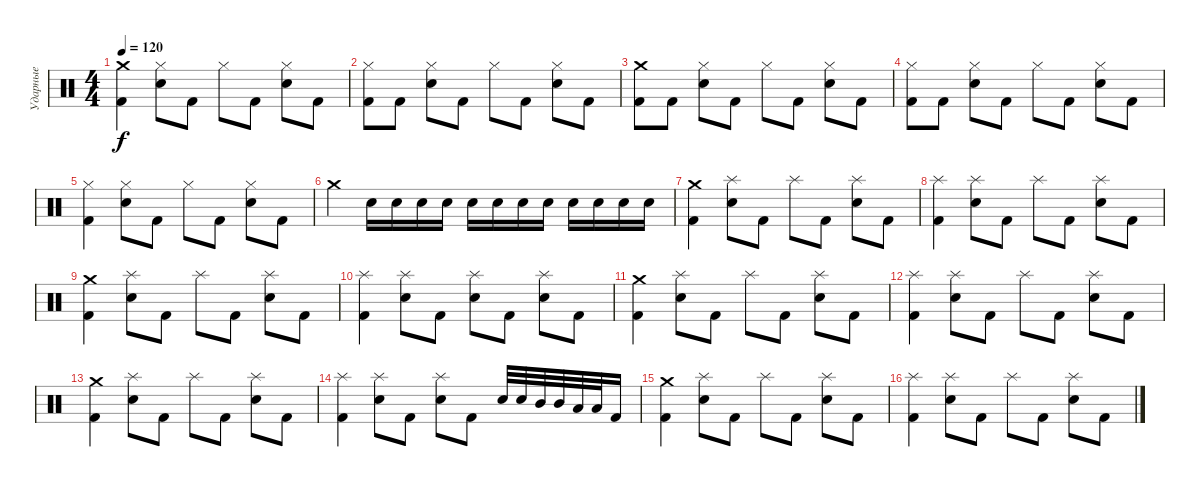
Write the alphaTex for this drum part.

\track ("Ударные" "Ударные") {instrument percussion}
\staff {score}
\articulation defaults
\ts (4 4)
\tempo 120
\clef neutral
\ks c
("Crash medium (hit)" "Kick (hit) 2").4{dy f} ("Hi-Hat (closed)" "Electric Snare (hit)").8 "Kick (hit) 2".8 "Hi-Hat (closed)".8 "Kick (hit) 2".8 ("Hi-Hat (closed)" "Electric Snare (hit)").8 "Kick (hit) 2".8 |
("Hi-Hat (closed)" "Kick (hit) 2").8 "Kick (hit) 2".8 ("Hi-Hat (closed)" "Electric Snare (hit)").8 "Kick (hit) 2".8 "Hi-Hat (closed)".8 "Kick (hit) 2".8 ("Hi-Hat (closed)" "Electric Snare (hit)").8 "Kick (hit) 2".8 |
("Crash medium (hit)" "Kick (hit) 2").8 "Kick (hit) 2".8 ("Hi-Hat (closed)" "Electric Snare (hit)").8 "Kick (hit) 2".8 "Hi-Hat (closed)".8 "Kick (hit) 2".8 ("Hi-Hat (closed)" "Electric Snare (hit)").8 "Kick (hit) 2".8 |
("Hi-Hat (closed)" "Kick (hit) 2").8 "Kick (hit) 2".8 ("Hi-Hat (closed)" "Electric Snare (hit)").8 "Kick (hit) 2".8 "Hi-Hat (closed)".8 "Kick (hit) 2".8 ("Hi-Hat (closed)" "Electric Snare (hit)").8 "Kick (hit) 2".8 |
("Hi-Hat (closed)" "Kick (hit) 2").4 ("Hi-Hat (closed)" "Electric Snare (hit)").8 "Kick (hit) 2".8 "Hi-Hat (closed)".8 "Kick (hit) 2".8 ("Hi-Hat (closed)" "Electric Snare (hit)").8 "Kick (hit) 2".8 |
"Crash medium (hit)".4 "Electric Snare (hit)".16 "Electric Snare (hit)".16 "Electric Snare (hit)".16 "Electric Snare (hit)".16 "Electric Snare (hit)".16 "Electric Snare (hit)".16 "Electric Snare (hit)".16 "Electric Snare (hit)".16 "Electric Snare (hit)".16 "Electric Snare (hit)".16 "Electric Snare (hit)".16 "Electric Snare (hit)".16 |
("Crash medium (hit)" "Kick (hit) 2").4 ("Splash (hit)" "Electric Snare (hit)").8 "Kick (hit) 2".8 "Splash (hit)".8 "Kick (hit) 2".8 ("Splash (hit)" "Electric Snare (hit)").8 "Kick (hit) 2".8 |
("Splash (hit)" "Kick (hit) 2").4 ("Splash (hit)" "Electric Snare (hit)").8 "Kick (hit) 2".8 "Splash (hit)".8 "Kick (hit) 2".8 ("Splash (hit)" "Electric Snare (hit)").8 "Kick (hit) 2".8 |
("Crash medium (hit)" "Kick (hit) 2").4 ("Splash (hit)" "Electric Snare (hit)").8 "Kick (hit) 2".8 "Splash (hit)".8 "Kick (hit) 2".8 ("Splash (hit)" "Electric Snare (hit)").8 "Kick (hit) 2".8 |
("Splash (hit)" "Kick (hit) 2").4 ("Splash (hit)" "Electric Snare (hit)").8 "Kick (hit) 2".8 ("Splash (hit)" "Electric Snare (hit)").8 "Kick (hit) 2".8 ("Splash (hit)" "Electric Snare (hit)").8 "Kick (hit) 2".8 |
("Crash medium (hit)" "Kick (hit) 2").4 ("Splash (hit)" "Electric Snare (hit)").8 "Kick (hit) 2".8 "Splash (hit)".8 "Kick (hit) 2".8 ("Splash (hit)" "Electric Snare (hit)").8 "Kick (hit) 2".8 |
("Splash (hit)" "Kick (hit) 2").4 ("Splash (hit)" "Electric Snare (hit)").8 "Kick (hit) 2".8 "Splash (hit)".8 "Kick (hit) 2".8 ("Splash (hit)" "Electric Snare (hit)").8 "Kick (hit) 2".8 |
("Crash medium (hit)" "Kick (hit) 2").4 ("Splash (hit)" "Electric Snare (hit)").8 "Kick (hit) 2".8 "Splash (hit)".8 "Kick (hit) 2".8 ("Splash (hit)" "Electric Snare (hit)").8 "Kick (hit) 2".8 |
("Splash (hit)" "Kick (hit) 2").4 ("Splash (hit)" "Electric Snare (hit)").8 "Kick (hit) 2".8 ("Splash (hit)" "Electric Snare (hit)").8 "Kick (hit) 2".8 "Electric Snare (hit)".32 "Electric Snare (hit)".32 "Mid Tom (hit)".32 "Mid Tom (hit)".32 "Low Tom (hit)".32 "Low Tom (hit)".32 "Kick (hit) 2".16 |
("Crash medium (hit)" "Kick (hit) 2").4 ("Splash (hit)" "Electric Snare (hit)").8 "Kick (hit) 2".8 "Splash (hit)".8 "Kick (hit) 2".8 ("Splash (hit)" "Electric Snare (hit)").8 "Kick (hit) 2".8 |
("Splash (hit)" "Kick (hit) 2").4 ("Splash (hit)" "Electric Snare (hit)").8 "Kick (hit) 2".8 "Splash (hit)".8 "Kick (hit) 2".8 ("Splash (hit)" "Electric Snare (hit)").8 "Kick (hit) 2".8
